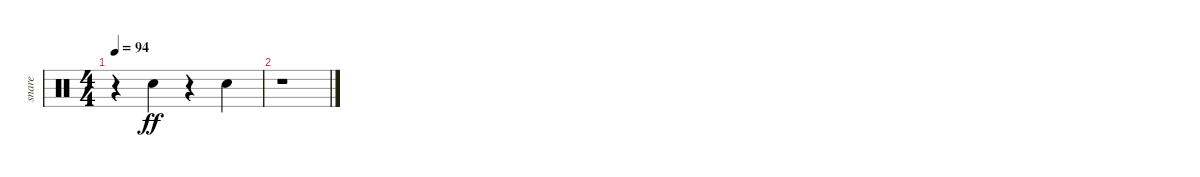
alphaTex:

\track ("snare" "snare") {instrument percussion}
\staff {score}
\articulation defaults
\ts (4 4)
\tempo 94
\clef neutral
\ks c
r.4{dy fff} "Electric Snare (hit)".4{dy ff volume 2} r.4 "Electric Snare (hit)".4{volume 2} |
r.1
